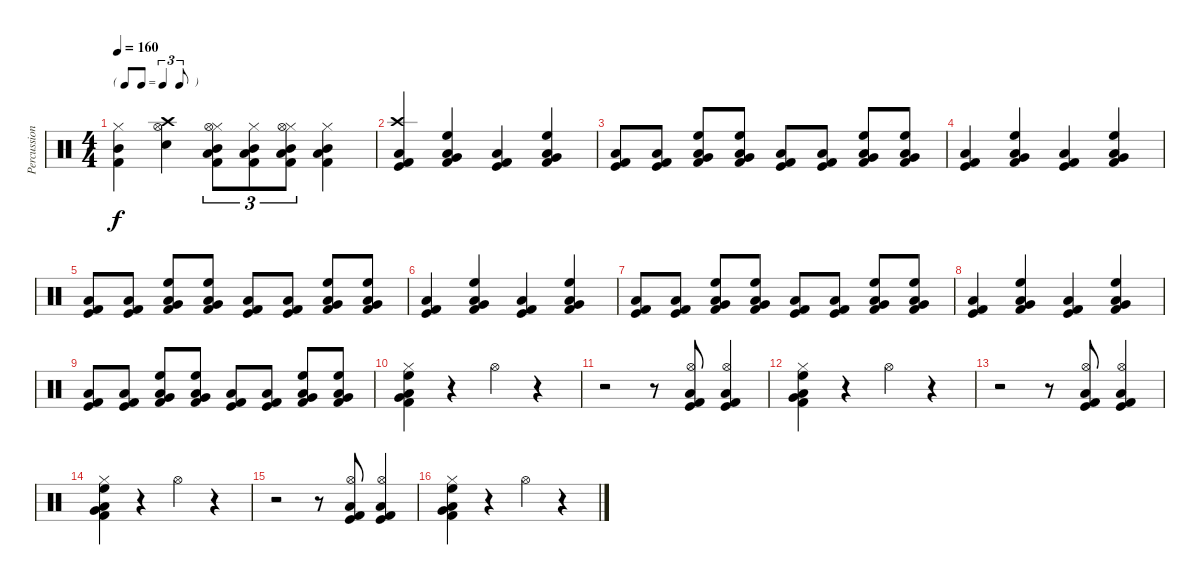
\track ("Percussion" "Percussion") {instrument percussion}
\staff {score}
\articulation defaults
\ts (4 4)
\tf triplet8th
\tempo 160
\clef neutral
\ks c
("Hi-Hat (closed)" "Kick (hit) 2" "Mid Tom (hit)").4{dy f} ("Hi-Hat (open)" "Electric Snare (hit)" "Crash high (hit)").4 ("Hi-Hat (closed)" "Kick (hit) 2" "Mid Tom (hit)" "Low Floor Tom (hit)" "Hi-Hat (open)").8{tu (3 2)} ("Hi-Hat (closed)" "Kick (hit) 2" "Mid Tom (hit)" "Low Floor Tom (hit)").8{tu (3 2)} ("Hi-Hat (closed)" "Kick (hit) 2" "Mid Tom (hit)" "Low Floor Tom (hit)" "Hi-Hat (open)").8{tu (3 2)} ("Hi-Hat (closed)" "Kick (hit) 2" "Mid Tom (hit)" "Low Floor Tom (hit)").4 |
("Crash high (hit)" "Kick (hit)" "Kick (hit) 2" "Low Floor Tom (hit)").4 ("High Floor Tom (hit)" "Very Low Tom (hit)" "Kick (hit) 2" "Low Floor Tom (hit)").4 ("Kick (hit)" "Kick (hit) 2" "Low Floor Tom (hit)").4 ("High Floor Tom (hit)" "Very Low Tom (hit)" "Kick (hit) 2" "Low Floor Tom (hit)").4 |
("Kick (hit)" "Kick (hit) 2" "Low Floor Tom (hit)").8 ("Kick (hit)" "Kick (hit) 2" "Low Floor Tom (hit)").8 ("High Floor Tom (hit)" "Very Low Tom (hit)" "Kick (hit) 2" "Low Floor Tom (hit)").8 ("High Floor Tom (hit)" "Very Low Tom (hit)" "Kick (hit) 2" "Low Floor Tom (hit)").8 ("Kick (hit)" "Kick (hit) 2" "Low Floor Tom (hit)").8 ("Kick (hit)" "Kick (hit) 2" "Low Floor Tom (hit)").8 ("High Floor Tom (hit)" "Very Low Tom (hit)" "Kick (hit) 2" "Low Floor Tom (hit)").8 ("High Floor Tom (hit)" "Very Low Tom (hit)" "Kick (hit) 2" "Low Floor Tom (hit)").8 |
("Kick (hit)" "Kick (hit) 2" "Low Floor Tom (hit)").4 ("High Floor Tom (hit)" "Very Low Tom (hit)" "Kick (hit) 2" "Low Floor Tom (hit)").4 ("Kick (hit)" "Kick (hit) 2" "Low Floor Tom (hit)").4 ("High Floor Tom (hit)" "Very Low Tom (hit)" "Kick (hit) 2" "Low Floor Tom (hit)").4 |
("Kick (hit)" "Kick (hit) 2" "Low Floor Tom (hit)").8 ("Kick (hit)" "Kick (hit) 2" "Low Floor Tom (hit)").8 ("High Floor Tom (hit)" "Very Low Tom (hit)" "Kick (hit) 2" "Low Floor Tom (hit)").8 ("High Floor Tom (hit)" "Very Low Tom (hit)" "Kick (hit) 2" "Low Floor Tom (hit)").8 ("Kick (hit)" "Kick (hit) 2" "Low Floor Tom (hit)").8 ("Kick (hit)" "Kick (hit) 2" "Low Floor Tom (hit)").8 ("High Floor Tom (hit)" "Very Low Tom (hit)" "Kick (hit) 2" "Low Floor Tom (hit)").8 ("High Floor Tom (hit)" "Very Low Tom (hit)" "Kick (hit) 2" "Low Floor Tom (hit)").8 |
("Kick (hit)" "Kick (hit) 2" "Low Floor Tom (hit)").4 ("High Floor Tom (hit)" "Very Low Tom (hit)" "Kick (hit) 2" "Low Floor Tom (hit)").4 ("Kick (hit)" "Kick (hit) 2" "Low Floor Tom (hit)").4 ("High Floor Tom (hit)" "Very Low Tom (hit)" "Kick (hit) 2" "Low Floor Tom (hit)").4 |
("Kick (hit)" "Kick (hit) 2" "Low Floor Tom (hit)").8 ("Kick (hit)" "Kick (hit) 2" "Low Floor Tom (hit)").8 ("High Floor Tom (hit)" "Very Low Tom (hit)" "Kick (hit) 2" "Low Floor Tom (hit)").8 ("High Floor Tom (hit)" "Very Low Tom (hit)" "Kick (hit) 2" "Low Floor Tom (hit)").8 ("Kick (hit)" "Kick (hit) 2" "Low Floor Tom (hit)").8 ("Kick (hit)" "Kick (hit) 2" "Low Floor Tom (hit)").8 ("High Floor Tom (hit)" "Very Low Tom (hit)" "Kick (hit) 2" "Low Floor Tom (hit)").8 ("High Floor Tom (hit)" "Very Low Tom (hit)" "Kick (hit) 2" "Low Floor Tom (hit)").8 |
("Kick (hit)" "Kick (hit) 2" "Low Floor Tom (hit)").4 ("High Floor Tom (hit)" "Very Low Tom (hit)" "Kick (hit) 2" "Low Floor Tom (hit)").4 ("Kick (hit)" "Kick (hit) 2" "Low Floor Tom (hit)").4 ("High Floor Tom (hit)" "Very Low Tom (hit)" "Kick (hit) 2" "Low Floor Tom (hit)").4 |
("Kick (hit)" "Kick (hit) 2" "Low Floor Tom (hit)").8 ("Kick (hit)" "Kick (hit) 2" "Low Floor Tom (hit)").8 ("High Floor Tom (hit)" "Very Low Tom (hit)" "Kick (hit) 2" "Low Floor Tom (hit)").8 ("High Floor Tom (hit)" "Very Low Tom (hit)" "Kick (hit) 2" "Low Floor Tom (hit)").8 ("Kick (hit)" "Kick (hit) 2" "Low Floor Tom (hit)").8 ("Kick (hit)" "Kick (hit) 2" "Low Floor Tom (hit)").8 ("High Floor Tom (hit)" "Very Low Tom (hit)" "Kick (hit) 2" "Low Floor Tom (hit)").8 ("High Floor Tom (hit)" "Very Low Tom (hit)" "Kick (hit) 2" "Low Floor Tom (hit)").8 |
("Hi-Hat (closed)" "High Floor Tom (hit)" "Very Low Tom (hit)" "Kick (hit) 2" "Low Floor Tom (hit)").4 r.4 "Hi-Hat (open)".4 r.4 |
r.2 r.8 ("Hi-Hat (open)" "Kick (hit)" "Kick (hit) 2" "Low Floor Tom (hit)").8 ("Hi-Hat (open)" "Kick (hit)" "Kick (hit) 2" "Low Floor Tom (hit)").4 |
("Hi-Hat (closed)" "High Floor Tom (hit)" "Very Low Tom (hit)" "Kick (hit) 2" "Low Floor Tom (hit)").4 r.4 "Hi-Hat (open)".4 r.4 |
r.2 r.8 ("Hi-Hat (open)" "Kick (hit)" "Kick (hit) 2" "Low Floor Tom (hit)").8 ("Hi-Hat (open)" "Kick (hit)" "Kick (hit) 2" "Low Floor Tom (hit)").4 |
("Hi-Hat (closed)" "High Floor Tom (hit)" "Very Low Tom (hit)" "Kick (hit) 2" "Low Floor Tom (hit)").4 r.4 "Hi-Hat (open)".4 r.4 |
r.2 r.8 ("Hi-Hat (open)" "Kick (hit)" "Kick (hit) 2" "Low Floor Tom (hit)").8 ("Hi-Hat (open)" "Kick (hit)" "Kick (hit) 2" "Low Floor Tom (hit)").4 |
("Hi-Hat (closed)" "High Floor Tom (hit)" "Very Low Tom (hit)" "Kick (hit) 2" "Low Floor Tom (hit)").4 r.4 "Hi-Hat (open)".4 r.4
